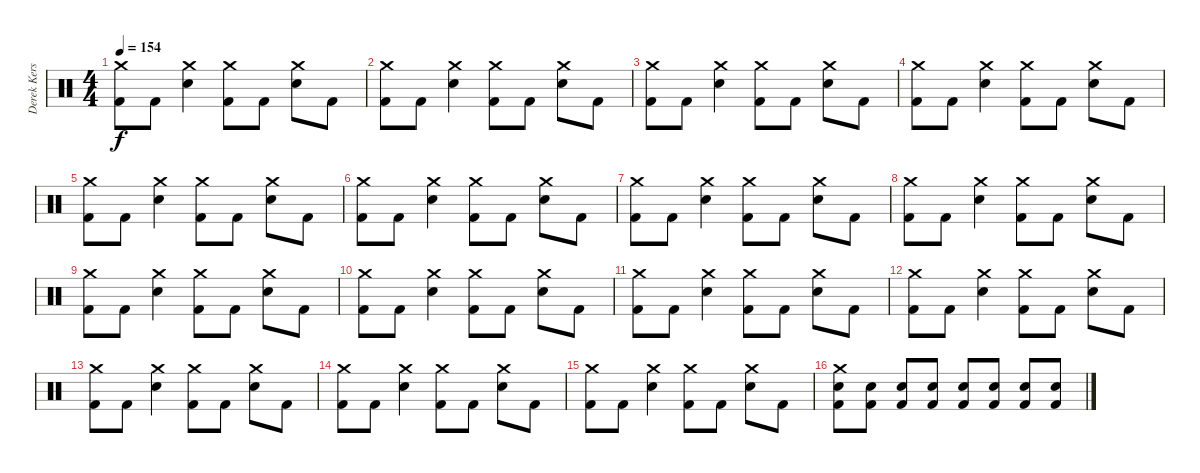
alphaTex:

\track ("Derek Kerswill" "Derek Kers") {instrument percussion}
\staff {score}
\articulation defaults
\ts (4 4)
\tempo 154
\clef neutral
\ks c
("Crash medium (hit)" "Kick (hit) 2").8{dy f} "Kick (hit) 2".8 ("Crash medium (hit)" "Electric Snare (hit)").4 ("Crash medium (hit)" "Kick (hit) 2").8 "Kick (hit) 2".8 ("Crash medium (hit)" "Electric Snare (hit)").8 "Kick (hit) 2".8 |
("Crash medium (hit)" "Kick (hit) 2").8 "Kick (hit) 2".8 ("Crash medium (hit)" "Electric Snare (hit)").4 ("Crash medium (hit)" "Kick (hit) 2").8 "Kick (hit) 2".8 ("Crash medium (hit)" "Electric Snare (hit)").8 "Kick (hit) 2".8 |
("Crash medium (hit)" "Kick (hit) 2").8 "Kick (hit) 2".8 ("Crash medium (hit)" "Electric Snare (hit)").4 ("Crash medium (hit)" "Kick (hit) 2").8 "Kick (hit) 2".8 ("Crash medium (hit)" "Electric Snare (hit)").8 "Kick (hit) 2".8 |
("Crash medium (hit)" "Kick (hit) 2").8 "Kick (hit) 2".8 ("Crash medium (hit)" "Electric Snare (hit)").4 ("Crash medium (hit)" "Kick (hit) 2").8 "Kick (hit) 2".8 ("Crash medium (hit)" "Electric Snare (hit)").8 "Kick (hit) 2".8 |
("Crash medium (hit)" "Kick (hit) 2").8 "Kick (hit) 2".8 ("Crash medium (hit)" "Electric Snare (hit)").4 ("Crash medium (hit)" "Kick (hit) 2").8 "Kick (hit) 2".8 ("Crash medium (hit)" "Electric Snare (hit)").8 "Kick (hit) 2".8 |
("Crash medium (hit)" "Kick (hit) 2").8 "Kick (hit) 2".8 ("Crash medium (hit)" "Electric Snare (hit)").4 ("Crash medium (hit)" "Kick (hit) 2").8 "Kick (hit) 2".8 ("Crash medium (hit)" "Electric Snare (hit)").8 "Kick (hit) 2".8 |
("Crash medium (hit)" "Kick (hit) 2").8 "Kick (hit) 2".8 ("Crash medium (hit)" "Electric Snare (hit)").4 ("Crash medium (hit)" "Kick (hit) 2").8 "Kick (hit) 2".8 ("Crash medium (hit)" "Electric Snare (hit)").8 "Kick (hit) 2".8 |
("Crash medium (hit)" "Kick (hit) 2").8 "Kick (hit) 2".8 ("Crash medium (hit)" "Electric Snare (hit)").4 ("Crash medium (hit)" "Kick (hit) 2").8 "Kick (hit) 2".8 ("Crash medium (hit)" "Electric Snare (hit)").8 "Kick (hit) 2".8 |
("Crash medium (hit)" "Kick (hit) 2").8 "Kick (hit) 2".8 ("Crash medium (hit)" "Electric Snare (hit)").4 ("Crash medium (hit)" "Kick (hit) 2").8 "Kick (hit) 2".8 ("Crash medium (hit)" "Electric Snare (hit)").8 "Kick (hit) 2".8 |
("Crash medium (hit)" "Kick (hit) 2").8 "Kick (hit) 2".8 ("Crash medium (hit)" "Electric Snare (hit)").4 ("Crash medium (hit)" "Kick (hit) 2").8 "Kick (hit) 2".8 ("Crash medium (hit)" "Electric Snare (hit)").8 "Kick (hit) 2".8 |
("Crash medium (hit)" "Kick (hit) 2").8 "Kick (hit) 2".8 ("Crash medium (hit)" "Electric Snare (hit)").4 ("Crash medium (hit)" "Kick (hit) 2").8 "Kick (hit) 2".8 ("Crash medium (hit)" "Electric Snare (hit)").8 "Kick (hit) 2".8 |
("Crash medium (hit)" "Kick (hit) 2").8 "Kick (hit) 2".8 ("Crash medium (hit)" "Electric Snare (hit)").4 ("Crash medium (hit)" "Kick (hit) 2").8 "Kick (hit) 2".8 ("Crash medium (hit)" "Electric Snare (hit)").8 "Kick (hit) 2".8 |
("Crash medium (hit)" "Kick (hit) 2").8 "Kick (hit) 2".8 ("Crash medium (hit)" "Electric Snare (hit)").4 ("Crash medium (hit)" "Kick (hit) 2").8 "Kick (hit) 2".8 ("Crash medium (hit)" "Electric Snare (hit)").8 "Kick (hit) 2".8 |
("Crash medium (hit)" "Kick (hit) 2").8 "Kick (hit) 2".8 ("Crash medium (hit)" "Electric Snare (hit)").4 ("Crash medium (hit)" "Kick (hit) 2").8 "Kick (hit) 2".8 ("Crash medium (hit)" "Electric Snare (hit)").8 "Kick (hit) 2".8 |
("Crash medium (hit)" "Kick (hit) 2").8 "Kick (hit) 2".8 ("Crash medium (hit)" "Electric Snare (hit)").4 ("Crash medium (hit)" "Kick (hit) 2").8 "Kick (hit) 2".8 ("Crash medium (hit)" "Electric Snare (hit)").8 "Kick (hit) 2".8 |
("Crash medium (hit)" "Electric Snare (hit)" "Kick (hit) 2").8 ("Electric Snare (hit)" "Kick (hit) 2").8 ("Electric Snare (hit)" "Kick (hit) 2").8 ("Electric Snare (hit)" "Kick (hit) 2").8 ("Electric Snare (hit)" "Kick (hit) 2").8 ("Electric Snare (hit)" "Kick (hit) 2").8 ("Electric Snare (hit)" "Kick (hit) 2").8 ("Electric Snare (hit)" "Kick (hit) 2").8
